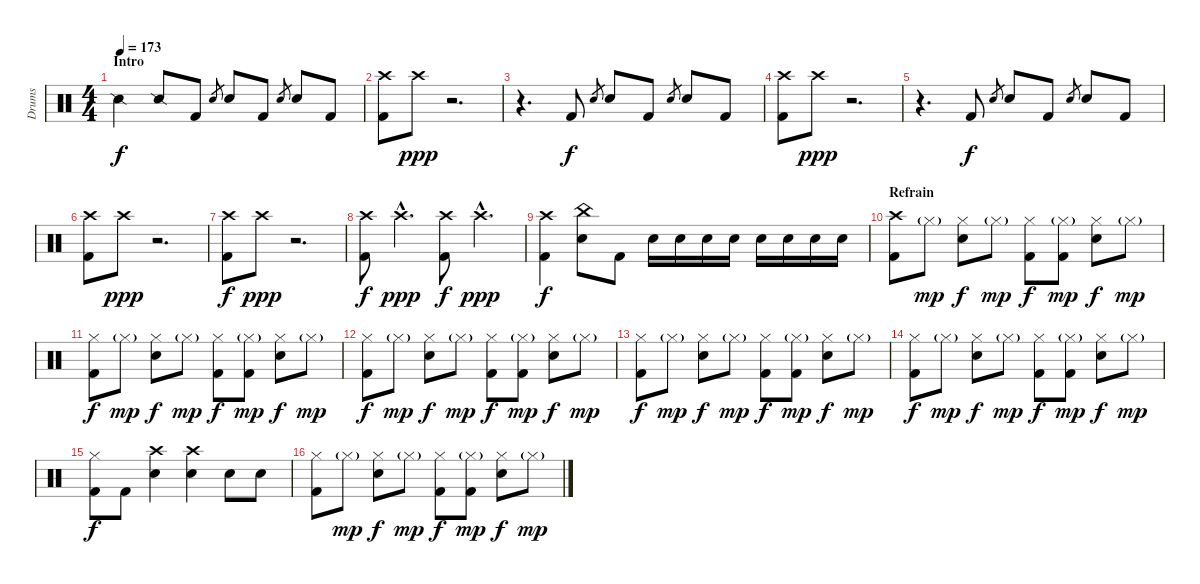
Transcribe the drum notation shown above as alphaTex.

\track ("Drums" "Drums") {instrument percussion}
\staff {score}
\articulation defaults
\ts (4 4)
\section ("" "Intro")
\tempo 173
\clef neutral
\ks c "Snare (side stick) 2".4{dy f} "Snare (side stick) 2".8 "Kick (hit) 2".8 "Electric Snare (hit)".8{gr} "Electric Snare (hit)".8 "Kick (hit) 2".8 "Electric Snare (hit)".8{gr} "Electric Snare (hit)".8 "Kick (hit) 2".8
|
("Crash high (hit)" "Kick (hit) 2").8 "Crash high (hit)".8{dy ppp} r.2{d} |
r.4{d} "Kick (hit) 2".8{dy f} "Electric Snare (hit)".8{gr} "Electric Snare (hit)".8 "Kick (hit) 2".8 "Electric Snare (hit)".8{gr} "Electric Snare (hit)".8 "Kick (hit) 2".8 |
("Crash high (hit)" "Kick (hit) 2").8 "Crash high (hit)".8{dy ppp} r.2{d} |
r.4{d} "Kick (hit) 2".8{dy f} "Electric Snare (hit)".8{gr} "Electric Snare (hit)".8 "Kick (hit) 2".8 "Electric Snare (hit)".8{gr} "Electric Snare (hit)".8 "Kick (hit) 2".8 |
("Crash high (hit)" "Kick (hit) 2").8 "Crash high (hit)".8{dy ppp} r.2{d} |
("Crash high (hit)" "Kick (hit) 2").8{dy f} "Crash high (hit)".8{dy ppp} r.2{d} |
("Crash high (hit)" "Kick (hit) 2").8{dy f} "Crash high (hit)"{hac}.4{d dy ppp} ("Crash high (hit)" "Kick (hit) 2").8{dy f} "Crash high (hit)"{hac}.4{d dy ppp} |
("Crash high (hit)" "Kick (hit) 2").4{dy f} ("China (hit)" "Electric Snare (hit)").8 "Kick (hit) 2".8 "Electric Snare (hit)".16 "Electric Snare (hit)".16 "Electric Snare (hit)".16 "Electric Snare (hit)".16 "Electric Snare (hit)".16 "Electric Snare (hit)".16 "Electric Snare (hit)".16 "Electric Snare (hit)".16 |
\section ("" "Refrain")
("Crash high (hit)" "Kick (hit) 2").8 "Hi-Hat (closed)"{g}.8{dy mp} ("Hi-Hat (closed)" "Electric Snare (hit)").8{dy f} "Hi-Hat (closed)"{g}.8{dy mp} ("Hi-Hat (closed)" "Kick (hit) 2").8{dy f} ("Hi-Hat (closed)"{g} "Kick (hit) 2").8{dy mp} ("Hi-Hat (closed)" "Electric Snare (hit)").8{dy f} "Hi-Hat (closed)"{g}.8{dy mp} |
("Hi-Hat (closed)" "Kick (hit) 2").8{dy f} "Hi-Hat (closed)"{g}.8{dy mp} ("Hi-Hat (closed)" "Electric Snare (hit)").8{dy f} "Hi-Hat (closed)"{g}.8{dy mp} ("Hi-Hat (closed)" "Kick (hit) 2").8{dy f} ("Hi-Hat (closed)"{g} "Kick (hit) 2").8{dy mp} ("Hi-Hat (closed)" "Electric Snare (hit)").8{dy f} "Hi-Hat (closed)"{g}.8{dy mp} |
("Hi-Hat (closed)" "Kick (hit) 2").8{dy f} "Hi-Hat (closed)"{g}.8{dy mp} ("Hi-Hat (closed)" "Electric Snare (hit)").8{dy f} "Hi-Hat (closed)"{g}.8{dy mp} ("Hi-Hat (closed)" "Kick (hit) 2").8{dy f} ("Hi-Hat (closed)"{g} "Kick (hit) 2").8{dy mp} ("Hi-Hat (closed)" "Electric Snare (hit)").8{dy f} "Hi-Hat (closed)"{g}.8{dy mp} |
("Hi-Hat (closed)" "Kick (hit) 2").8{dy f} "Hi-Hat (closed)"{g}.8{dy mp} ("Hi-Hat (closed)" "Electric Snare (hit)").8{dy f} "Hi-Hat (closed)"{g}.8{dy mp} ("Hi-Hat (closed)" "Kick (hit) 2").8{dy f} ("Hi-Hat (closed)"{g} "Kick (hit) 2").8{dy mp} ("Hi-Hat (closed)" "Electric Snare (hit)").8{dy f} "Hi-Hat (closed)"{g}.8{dy mp} |
("Hi-Hat (closed)" "Kick (hit) 2").8{dy f} "Hi-Hat (closed)"{g}.8{dy mp} ("Hi-Hat (closed)" "Electric Snare (hit)").8{dy f} "Hi-Hat (closed)"{g}.8{dy mp} ("Hi-Hat (closed)" "Kick (hit) 2").8{dy f} ("Hi-Hat (closed)"{g} "Kick (hit) 2").8{dy mp} ("Hi-Hat (closed)" "Electric Snare (hit)").8{dy f} "Hi-Hat (closed)"{g}.8{dy mp} |
("Hi-Hat (closed)" "Kick (hit) 2").8{dy f} "Kick (hit) 2".8 ("Crash high (hit)" "Electric Snare (hit)").4 ("Crash high (hit)" "Electric Snare (hit)").4 "Electric Snare (hit)".8 "Electric Snare (hit)".8 |
("Hi-Hat (closed)" "Kick (hit) 2").8 "Hi-Hat (closed)"{g}.8{dy mp} ("Hi-Hat (closed)" "Electric Snare (hit)").8{dy f} "Hi-Hat (closed)"{g}.8{dy mp} ("Hi-Hat (closed)" "Kick (hit) 2").8{dy f} ("Hi-Hat (closed)"{g} "Kick (hit) 2").8{dy mp} ("Hi-Hat (closed)" "Electric Snare (hit)").8{dy f} "Hi-Hat (closed)"{g}.8{dy mp}
